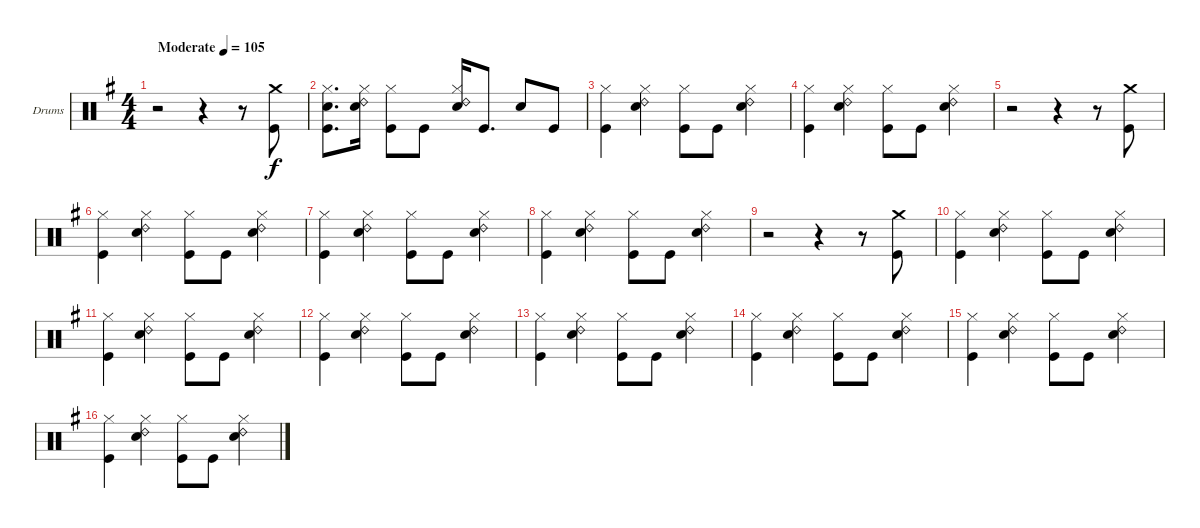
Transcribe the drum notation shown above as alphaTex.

\bracketExtendMode groupsimilarinstruments
\firstSystemTrackNameOrientation horizontal
\otherSystemsTrackNameOrientation horizontal
\track ("Drumkit" "Drums") {instrument percussion}
\staff {score}
\articulation defaults
\ts (4 4)
\beaming (8 2 2 2 2)
\tempo (105 "Moderate")
\clef neutral
\ks g
r.2{dy f} r.4 r.8 ("Crash medium (hit)" "Kick (hit)").8 |
("Snare (hit) 2" "Hi-Hat (closed)" "Kick (hit)").8{d} ("Hi-Hat (closed)" "Ride (bell) 2" "Snare (hit) 2").16 ("Hi-Hat (closed)" "Kick (hit)").8 "Kick (hit)".8 ("Hi-Hat (closed)" "Ride (bell) 2" "Snare (hit) 2").16 "Kick (hit)".8{d} "Snare (hit) 2".8 "Kick (hit)".8 |
("Hi-Hat (closed)" "Kick (hit)").4 ("Hi-Hat (closed)" "Ride (bell) 2" "Snare (hit) 2").4 ("Hi-Hat (closed)" "Kick (hit)").8 "Kick (hit)".8 ("Hi-Hat (closed)" "Ride (bell) 2" "Snare (hit) 2").4 |
("Hi-Hat (closed)" "Kick (hit)").4 ("Hi-Hat (closed)" "Ride (bell) 2" "Snare (hit) 2").4 ("Hi-Hat (closed)" "Kick (hit)").8 "Kick (hit)".8 ("Hi-Hat (closed)" "Ride (bell) 2" "Snare (hit) 2").4 |
r.2 r.4 r.8 ("Crash medium (hit)" "Kick (hit)").8 |
("Hi-Hat (closed)" "Kick (hit)").4 ("Hi-Hat (closed)" "Ride (bell) 2" "Snare (hit) 2").4 ("Hi-Hat (closed)" "Kick (hit)").8 "Kick (hit)".8 ("Hi-Hat (closed)" "Ride (bell) 2" "Snare (hit) 2").4 |
("Hi-Hat (closed)" "Kick (hit)").4 ("Hi-Hat (closed)" "Ride (bell) 2" "Snare (hit) 2").4 ("Hi-Hat (closed)" "Kick (hit)").8 "Kick (hit)".8 ("Hi-Hat (closed)" "Ride (bell) 2" "Snare (hit) 2").4 |
("Hi-Hat (closed)" "Kick (hit)").4 ("Hi-Hat (closed)" "Ride (bell) 2" "Snare (hit) 2").4 ("Hi-Hat (closed)" "Kick (hit)").8 "Kick (hit)".8 ("Hi-Hat (closed)" "Ride (bell) 2" "Snare (hit) 2").4 |
r.2 r.4 r.8 ("Crash medium (hit)" "Kick (hit)").8 |
("Hi-Hat (closed)" "Kick (hit)").4 ("Hi-Hat (closed)" "Ride (bell) 2" "Snare (hit) 2").4 ("Hi-Hat (closed)" "Kick (hit)").8 "Kick (hit)".8 ("Hi-Hat (closed)" "Ride (bell) 2" "Snare (hit) 2").4 |
("Hi-Hat (closed)" "Kick (hit)").4 ("Hi-Hat (closed)" "Ride (bell) 2" "Snare (hit) 2").4 ("Hi-Hat (closed)" "Kick (hit)").8 "Kick (hit)".8 ("Hi-Hat (closed)" "Ride (bell) 2" "Snare (hit) 2").4 |
("Hi-Hat (closed)" "Kick (hit)").4 ("Hi-Hat (closed)" "Ride (bell) 2" "Snare (hit) 2").4 ("Hi-Hat (closed)" "Kick (hit)").8 "Kick (hit)".8 ("Hi-Hat (closed)" "Ride (bell) 2" "Snare (hit) 2").4 |
("Hi-Hat (closed)" "Kick (hit)").4 ("Hi-Hat (closed)" "Ride (bell) 2" "Snare (hit) 2").4 ("Hi-Hat (closed)" "Kick (hit)").8 "Kick (hit)".8 ("Hi-Hat (closed)" "Ride (bell) 2" "Snare (hit) 2").4 |
("Hi-Hat (closed)" "Kick (hit)").4 ("Hi-Hat (closed)" "Ride (bell) 2" "Snare (hit) 2").4 ("Hi-Hat (closed)" "Kick (hit)").8 "Kick (hit)".8 ("Hi-Hat (closed)" "Ride (bell) 2" "Snare (hit) 2").4 |
("Hi-Hat (closed)" "Kick (hit)").4 ("Hi-Hat (closed)" "Ride (bell) 2" "Snare (hit) 2").4 ("Hi-Hat (closed)" "Kick (hit)").8 "Kick (hit)".8 ("Hi-Hat (closed)" "Ride (bell) 2" "Snare (hit) 2").4 |
("Hi-Hat (closed)" "Kick (hit)").4 ("Hi-Hat (closed)" "Ride (bell) 2" "Snare (hit) 2").4 ("Hi-Hat (closed)" "Kick (hit)").8 "Kick (hit)".8 ("Hi-Hat (closed)" "Ride (bell) 2" "Snare (hit) 2").4
